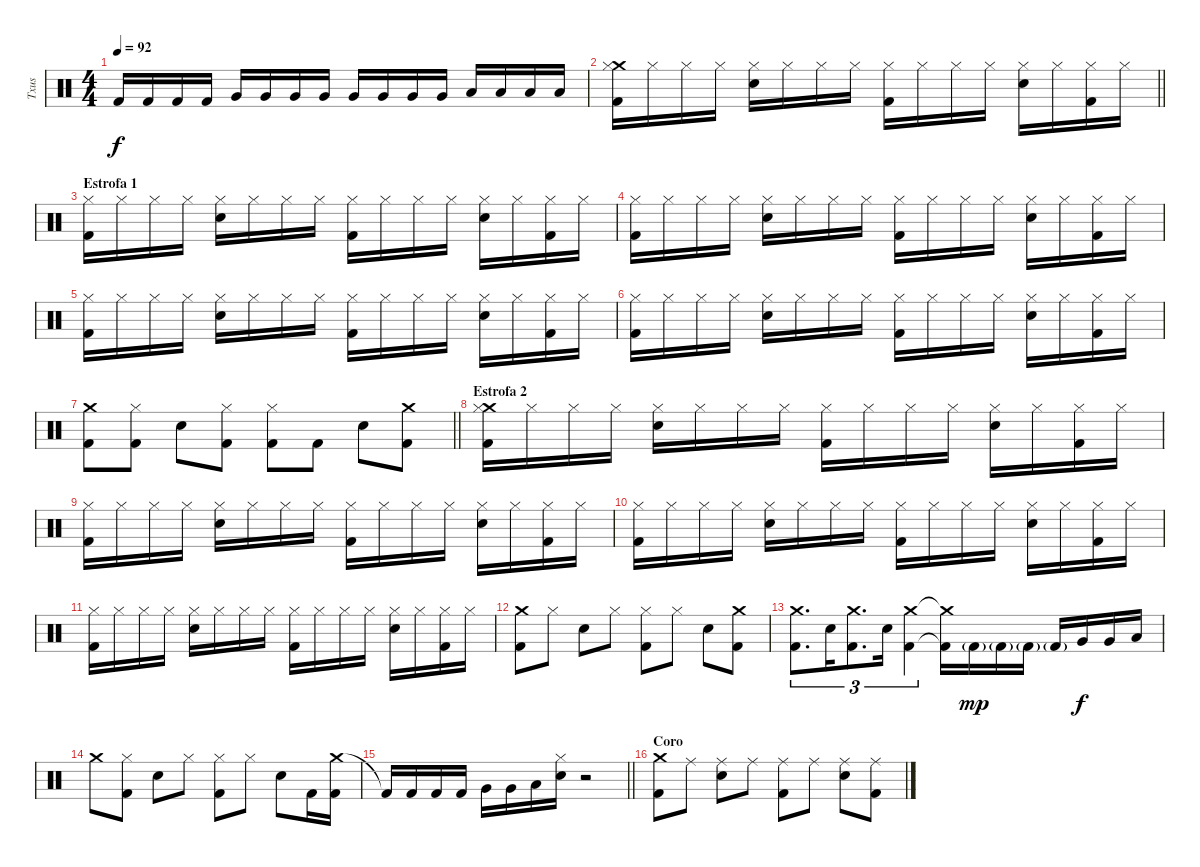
\track ("Txus" "Txus") {instrument percussion}
\staff {score}
\articulation defaults
\ts (4 4)
\tempo 92
\clef neutral
\ks c "Kick (hit) 2".16{dy f} "Kick (hit) 2".16 "Kick (hit) 2".16 "Kick (hit) 2".16 "Very Low Tom (hit)".16 "Very Low Tom (hit)".16 "Very Low Tom (hit)".16 "Very Low Tom (hit)".16 "Very Low Tom (hit)".16 "Very Low Tom (hit)".16 "Very Low Tom (hit)".16 "Very Low Tom (hit)".16 "Low Floor Tom (hit)".16 "Low Floor Tom (hit)".16 "Low Floor Tom (hit)".16 "Low Floor Tom (hit)".16
|
\barLineRight lightlight
("Crash medium (hit)" "Hi-Hat (closed)" "Kick (hit) 2").16 "Hi-Hat (closed)".16 "Hi-Hat (closed)".16 "Hi-Hat (closed)".16 ("Hi-Hat (closed)" "Electric Snare (hit)").16 "Hi-Hat (closed)".16 "Hi-Hat (closed)".16 "Hi-Hat (closed)".16 ("Hi-Hat (closed)" "Kick (hit) 2").16 "Hi-Hat (closed)".16 "Hi-Hat (closed)".16 "Hi-Hat (closed)".16 ("Hi-Hat (closed)" "Electric Snare (hit)").16 "Hi-Hat (closed)".16 ("Hi-Hat (closed)" "Kick (hit) 2").16 "Hi-Hat (closed)".16 |
\section ("" "Estrofa 1")
("Hi-Hat (closed)" "Kick (hit) 2").16 "Hi-Hat (closed)".16 "Hi-Hat (closed)".16 "Hi-Hat (closed)".16 ("Hi-Hat (closed)" "Electric Snare (hit)").16 "Hi-Hat (closed)".16 "Hi-Hat (closed)".16 "Hi-Hat (closed)".16 ("Hi-Hat (closed)" "Kick (hit) 2").16 "Hi-Hat (closed)".16 "Hi-Hat (closed)".16 "Hi-Hat (closed)".16 ("Hi-Hat (closed)" "Electric Snare (hit)").16 "Hi-Hat (closed)".16 ("Hi-Hat (closed)" "Kick (hit) 2").16 "Hi-Hat (closed)".16 |
("Hi-Hat (closed)" "Kick (hit) 2").16 "Hi-Hat (closed)".16 "Hi-Hat (closed)".16 "Hi-Hat (closed)".16 ("Hi-Hat (closed)" "Electric Snare (hit)").16 "Hi-Hat (closed)".16 "Hi-Hat (closed)".16 "Hi-Hat (closed)".16 ("Hi-Hat (closed)" "Kick (hit) 2").16 "Hi-Hat (closed)".16 "Hi-Hat (closed)".16 "Hi-Hat (closed)".16 ("Hi-Hat (closed)" "Electric Snare (hit)").16 "Hi-Hat (closed)".16 ("Hi-Hat (closed)" "Kick (hit) 2").16 "Hi-Hat (closed)".16 |
("Hi-Hat (closed)" "Kick (hit) 2").16 "Hi-Hat (closed)".16 "Hi-Hat (closed)".16 "Hi-Hat (closed)".16 ("Hi-Hat (closed)" "Electric Snare (hit)").16 "Hi-Hat (closed)".16 "Hi-Hat (closed)".16 "Hi-Hat (closed)".16 ("Hi-Hat (closed)" "Kick (hit) 2").16 "Hi-Hat (closed)".16 "Hi-Hat (closed)".16 "Hi-Hat (closed)".16 ("Hi-Hat (closed)" "Electric Snare (hit)").16 "Hi-Hat (closed)".16 ("Hi-Hat (closed)" "Kick (hit) 2").16 "Hi-Hat (closed)".16 |
("Hi-Hat (closed)" "Kick (hit) 2").16 "Hi-Hat (closed)".16 "Hi-Hat (closed)".16 "Hi-Hat (closed)".16 ("Hi-Hat (closed)" "Electric Snare (hit)").16 "Hi-Hat (closed)".16 "Hi-Hat (closed)".16 "Hi-Hat (closed)".16 ("Hi-Hat (closed)" "Kick (hit) 2").16 "Hi-Hat (closed)".16 "Hi-Hat (closed)".16 "Hi-Hat (closed)".16 ("Hi-Hat (closed)" "Electric Snare (hit)").16 "Hi-Hat (closed)".16 ("Hi-Hat (closed)" "Kick (hit) 2").16 "Hi-Hat (closed)".16 |
\barLineRight lightlight
("Crash medium (hit)" "Kick (hit) 2").8 ("Hi-Hat (closed)" "Kick (hit) 2").8 "Electric Snare (hit)".8 ("Hi-Hat (closed)" "Kick (hit) 2").8 ("Hi-Hat (closed)" "Kick (hit) 2").8 "Kick (hit) 2".8 "Electric Snare (hit)".8 ("Crash medium (hit)" "Kick (hit) 2").8 |
\section ("" "Estrofa 2")
("Crash medium (hit)" "Hi-Hat (closed)" "Kick (hit) 2").16 "Hi-Hat (closed)".16 "Hi-Hat (closed)".16 "Hi-Hat (closed)".16 ("Hi-Hat (closed)" "Electric Snare (hit)").16 "Hi-Hat (closed)".16 "Hi-Hat (closed)".16 "Hi-Hat (closed)".16 ("Hi-Hat (closed)" "Kick (hit) 2").16 "Hi-Hat (closed)".16 "Hi-Hat (closed)".16 "Hi-Hat (closed)".16 ("Hi-Hat (closed)" "Electric Snare (hit)").16 "Hi-Hat (closed)".16 ("Hi-Hat (closed)" "Kick (hit) 2").16 "Hi-Hat (closed)".16 |
("Hi-Hat (closed)" "Kick (hit) 2").16 "Hi-Hat (closed)".16 "Hi-Hat (closed)".16 "Hi-Hat (closed)".16 ("Hi-Hat (closed)" "Electric Snare (hit)").16 "Hi-Hat (closed)".16 "Hi-Hat (closed)".16 "Hi-Hat (closed)".16 ("Hi-Hat (closed)" "Kick (hit) 2").16 "Hi-Hat (closed)".16 "Hi-Hat (closed)".16 "Hi-Hat (closed)".16 ("Hi-Hat (closed)" "Electric Snare (hit)").16 "Hi-Hat (closed)".16 ("Hi-Hat (closed)" "Kick (hit) 2").16 "Hi-Hat (closed)".16 |
("Hi-Hat (closed)" "Kick (hit) 2").16 "Hi-Hat (closed)".16 "Hi-Hat (closed)".16 "Hi-Hat (closed)".16 ("Hi-Hat (closed)" "Electric Snare (hit)").16 "Hi-Hat (closed)".16 "Hi-Hat (closed)".16 "Hi-Hat (closed)".16 ("Hi-Hat (closed)" "Kick (hit) 2").16 "Hi-Hat (closed)".16 "Hi-Hat (closed)".16 "Hi-Hat (closed)".16 ("Hi-Hat (closed)" "Electric Snare (hit)").16 "Hi-Hat (closed)".16 ("Hi-Hat (closed)" "Kick (hit) 2").16 "Hi-Hat (closed)".16 |
("Hi-Hat (closed)" "Kick (hit) 2").16 "Hi-Hat (closed)".16 "Hi-Hat (closed)".16 "Hi-Hat (closed)".16 ("Hi-Hat (closed)" "Electric Snare (hit)").16 "Hi-Hat (closed)".16 "Hi-Hat (closed)".16 "Hi-Hat (closed)".16 ("Hi-Hat (closed)" "Kick (hit) 2").16 "Hi-Hat (closed)".16 "Hi-Hat (closed)".16 "Hi-Hat (closed)".16 ("Hi-Hat (closed)" "Electric Snare (hit)").16 "Hi-Hat (closed)".16 ("Hi-Hat (closed)" "Kick (hit) 2").16 "Hi-Hat (closed)".16 |
("Crash medium (hit)" "Kick (hit) 2").8 "Hi-Hat (closed)".8 "Electric Snare (hit)".8 "Hi-Hat (closed)".8 ("Hi-Hat (closed)" "Kick (hit) 2").8 "Hi-Hat (closed)".8 "Electric Snare (hit)".8 ("Crash medium (hit)" "Kick (hit) 2").8 |
("Crash medium (hit)" "Kick (hit) 2").8{d tu (3 2)} "Electric Snare (hit)".16{tu (3 2)} ("Crash medium (hit)" "Kick (hit) 2").8{d tu (3 2)} "Electric Snare (hit)".16{tu (3 2)} ("Crash medium (hit)" "Kick (hit) 2").4{tu (3 2)} ("Crash medium (hit)"{t} "Kick (hit) 2"{t}).16 "Kick (hit) 2"{g}.16{dy mp} "Kick (hit) 2"{g}.16 "Kick (hit) 2"{g}.16 "Kick (hit) 2"{g}.16 "Very Low Tom (hit)".16{dy f} "Very Low Tom (hit)".16 "Low Floor Tom (hit)".16 |
"Crash medium (hit)".8 ("Hi-Hat (closed)" "Kick (hit) 2").8 "Electric Snare (hit)".8 "Hi-Hat (closed)".8 ("Hi-Hat (closed)" "Kick (hit) 2").8 "Hi-Hat (closed)".8 "Electric Snare (hit)".8 "Kick (hit) 2".16 ("Crash medium (hit)" "Kick (hit) 2").16 |
\barLineRight lightlight "Kick (hit) 2"{t}.16 "Kick (hit) 2".16 "Kick (hit) 2".16 "Kick (hit) 2".16 "Very Low Tom (hit)".16 "Very Low Tom (hit)".16 "Low Floor Tom (hit)".16
("Hi-Hat (closed)" "Electric Snare (hit)").16 r.2 |
\section ("" "Coro")
("Crash medium (hit)" "Kick (hit) 2").8 "Ride (middle)".8 ("Ride (middle)" "Electric Snare (hit)").8 "Ride (middle)".8 ("Ride (middle)" "Kick (hit) 2").8 "Ride (middle)".8 ("Ride (middle)" "Electric Snare (hit)").8 ("Ride (middle)" "Kick (hit) 2").8
